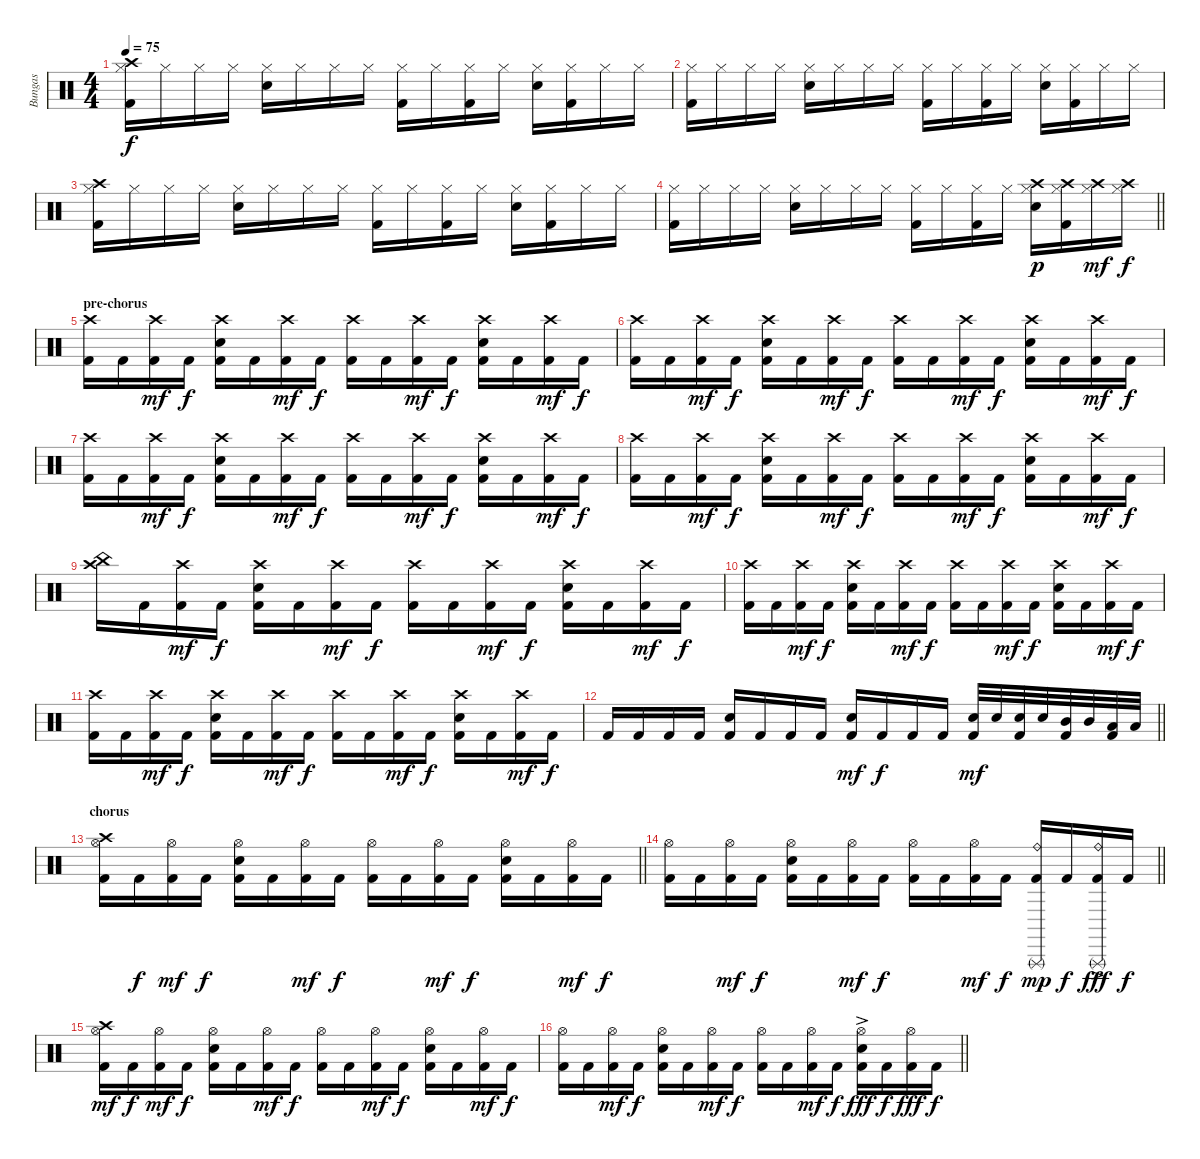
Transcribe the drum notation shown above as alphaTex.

\track ("Bungas" "Bungas") {instrument percussion}
\staff {score}
\articulation defaults
\ts (4 4)
\tempo 75
\clef neutral
\ks c
("Hi-Hat (closed)" "Crash high (hit)" "Kick (hit) 2").16{dy f} "Hi-Hat (closed)".16 "Hi-Hat (closed)".16 "Hi-Hat (closed)".16 ("Hi-Hat (closed)" "Electric Snare (hit)").16 "Hi-Hat (closed)".16 "Hi-Hat (closed)".16 "Hi-Hat (closed)".16 ("Hi-Hat (closed)" "Kick (hit) 2").16 "Hi-Hat (closed)".16 ("Hi-Hat (closed)" "Kick (hit) 2").16 "Hi-Hat (closed)".16 ("Hi-Hat (closed)" "Electric Snare (hit)").16 ("Hi-Hat (closed)" "Kick (hit) 2").16 "Hi-Hat (closed)".16 "Hi-Hat (closed)".16 |
("Hi-Hat (closed)" "Kick (hit) 2").16 "Hi-Hat (closed)".16 "Hi-Hat (closed)".16 "Hi-Hat (closed)".16 ("Hi-Hat (closed)" "Electric Snare (hit)").16 "Hi-Hat (closed)".16 "Hi-Hat (closed)".16 "Hi-Hat (closed)".16 ("Hi-Hat (closed)" "Kick (hit) 2").16 "Hi-Hat (closed)".16 ("Hi-Hat (closed)" "Kick (hit) 2").16 "Hi-Hat (closed)".16 ("Hi-Hat (closed)" "Electric Snare (hit)").16 ("Hi-Hat (closed)" "Kick (hit) 2").16 "Hi-Hat (closed)".16 "Hi-Hat (closed)".16 |
("Hi-Hat (closed)" "Crash high (hit)" "Kick (hit) 2").16 "Hi-Hat (closed)".16 "Hi-Hat (closed)".16 "Hi-Hat (closed)".16 ("Hi-Hat (closed)" "Electric Snare (hit)").16 "Hi-Hat (closed)".16 "Hi-Hat (closed)".16 "Hi-Hat (closed)".16 ("Hi-Hat (closed)" "Kick (hit) 2").16 "Hi-Hat (closed)".16 ("Hi-Hat (closed)" "Kick (hit) 2").16 "Hi-Hat (closed)".16 ("Hi-Hat (closed)" "Electric Snare (hit)").16 ("Hi-Hat (closed)" "Kick (hit) 2").16 "Hi-Hat (closed)".16 "Hi-Hat (closed)".16 |
\barLineRight lightlight
("Hi-Hat (closed)" "Kick (hit) 2").16 "Hi-Hat (closed)".16 "Hi-Hat (closed)".16 "Hi-Hat (closed)".16 ("Hi-Hat (closed)" "Electric Snare (hit)").16 "Hi-Hat (closed)".16 "Hi-Hat (closed)".16 "Hi-Hat (closed)".16 ("Hi-Hat (closed)" "Kick (hit) 2").16 "Hi-Hat (closed)".16 ("Hi-Hat (closed)" "Kick (hit) 2").16 "Hi-Hat (closed)".16 ("Hi-Hat (closed)" "Crash high (hit)" "Electric Snare (hit)").16{dy p} ("Hi-Hat (closed)" "Crash high (hit)" "Kick (hit) 2").16 ("Hi-Hat (closed)" "Crash high (hit)").16{dy mf} ("Hi-Hat (closed)" "Crash high (hit)").16{dy f} |
\section ("" "pre-chorus")
("Crash high (hit)" "Kick (hit) 2").16 "Kick (hit) 2".16 ("Crash high (hit)" "Kick (hit) 2").16{dy mf} "Kick (hit) 2".16{dy f} ("Crash high (hit)" "Electric Snare (hit)" "Kick (hit) 2").16 "Kick (hit) 2".16 ("Crash high (hit)" "Kick (hit) 2").16{dy mf} "Kick (hit) 2".16{dy f} ("Crash high (hit)" "Kick (hit) 2").16 "Kick (hit) 2".16 ("Crash high (hit)" "Kick (hit) 2").16{dy mf} "Kick (hit) 2".16{dy f} ("Crash high (hit)" "Electric Snare (hit)" "Kick (hit) 2").16 "Kick (hit) 2".16 ("Crash high (hit)" "Kick (hit) 2").16{dy mf} "Kick (hit) 2".16{dy f} |
("Crash high (hit)" "Kick (hit) 2").16 "Kick (hit) 2".16 ("Crash high (hit)" "Kick (hit) 2").16{dy mf} "Kick (hit) 2".16{dy f} ("Crash high (hit)" "Electric Snare (hit)" "Kick (hit) 2").16 "Kick (hit) 2".16 ("Crash high (hit)" "Kick (hit) 2").16{dy mf} "Kick (hit) 2".16{dy f} ("Crash high (hit)" "Kick (hit) 2").16 "Kick (hit) 2".16 ("Crash high (hit)" "Kick (hit) 2").16{dy mf} "Kick (hit) 2".16{dy f} ("Crash high (hit)" "Electric Snare (hit)" "Kick (hit) 2").16 "Kick (hit) 2".16 ("Crash high (hit)" "Kick (hit) 2").16{dy mf} "Kick (hit) 2".16{dy f} |
("Crash high (hit)" "Kick (hit) 2").16 "Kick (hit) 2".16 ("Crash high (hit)" "Kick (hit) 2").16{dy mf} "Kick (hit) 2".16{dy f} ("Crash high (hit)" "Electric Snare (hit)" "Kick (hit) 2").16 "Kick (hit) 2".16 ("Crash high (hit)" "Kick (hit) 2").16{dy mf} "Kick (hit) 2".16{dy f} ("Crash high (hit)" "Kick (hit) 2").16 "Kick (hit) 2".16 ("Crash high (hit)" "Kick (hit) 2").16{dy mf} "Kick (hit) 2".16{dy f} ("Crash high (hit)" "Electric Snare (hit)" "Kick (hit) 2").16 "Kick (hit) 2".16 ("Crash high (hit)" "Kick (hit) 2").16{dy mf} "Kick (hit) 2".16{dy f} |
("Crash high (hit)" "Kick (hit) 2").16 "Kick (hit) 2".16 ("Crash high (hit)" "Kick (hit) 2").16{dy mf} "Kick (hit) 2".16{dy f} ("Crash high (hit)" "Electric Snare (hit)" "Kick (hit) 2").16 "Kick (hit) 2".16 ("Crash high (hit)" "Kick (hit) 2").16{dy mf} "Kick (hit) 2".16{dy f} ("Crash high (hit)" "Kick (hit) 2").16 "Kick (hit) 2".16 ("Crash high (hit)" "Kick (hit) 2").16{dy mf} "Kick (hit) 2".16{dy f} ("Crash high (hit)" "Electric Snare (hit)" "Kick (hit) 2").16 "Kick (hit) 2".16 ("Crash high (hit)" "Kick (hit) 2").16{dy mf} "Kick (hit) 2".16{dy f} |
("Crash high (hit)" "China (hit)").16 "Kick (hit) 2".16 ("Crash high (hit)" "Kick (hit) 2").16{dy mf} "Kick (hit) 2".16{dy f} ("Crash high (hit)" "Electric Snare (hit)" "Kick (hit) 2").16 "Kick (hit) 2".16 ("Crash high (hit)" "Kick (hit) 2").16{dy mf} "Kick (hit) 2".16{dy f} ("Crash high (hit)" "Kick (hit) 2").16 "Kick (hit) 2".16 ("Crash high (hit)" "Kick (hit) 2").16{dy mf} "Kick (hit) 2".16{dy f} ("Crash high (hit)" "Electric Snare (hit)" "Kick (hit) 2").16 "Kick (hit) 2".16 ("Crash high (hit)" "Kick (hit) 2").16{dy mf} "Kick (hit) 2".16{dy f} |
("Crash high (hit)" "Kick (hit) 2").16 "Kick (hit) 2".16 ("Crash high (hit)" "Kick (hit) 2").16{dy mf} "Kick (hit) 2".16{dy f} ("Crash high (hit)" "Electric Snare (hit)" "Kick (hit) 2").16 "Kick (hit) 2".16 ("Crash high (hit)" "Kick (hit) 2").16{dy mf} "Kick (hit) 2".16{dy f} ("Crash high (hit)" "Kick (hit) 2").16 "Kick (hit) 2".16 ("Crash high (hit)" "Kick (hit) 2").16{dy mf} "Kick (hit) 2".16{dy f} ("Crash high (hit)" "Electric Snare (hit)" "Kick (hit) 2").16 "Kick (hit) 2".16 ("Crash high (hit)" "Kick (hit) 2").16{dy mf} "Kick (hit) 2".16{dy f} |
("Crash high (hit)" "Kick (hit) 2").16 "Kick (hit) 2".16 ("Crash high (hit)" "Kick (hit) 2").16{dy mf} "Kick (hit) 2".16{dy f} ("Crash high (hit)" "Electric Snare (hit)" "Kick (hit) 2").16 "Kick (hit) 2".16 ("Crash high (hit)" "Kick (hit) 2").16{dy mf} "Kick (hit) 2".16{dy f} ("Crash high (hit)" "Kick (hit) 2").16 "Kick (hit) 2".16 ("Crash high (hit)" "Kick (hit) 2").16{dy mf} "Kick (hit) 2".16{dy f} ("Crash high (hit)" "Electric Snare (hit)" "Kick (hit) 2").16 "Kick (hit) 2".16 ("Crash high (hit)" "Kick (hit) 2").16{dy mf} "Kick (hit) 2".16{dy f} |
\barLineRight lightlight "Kick (hit) 2".16 "Kick (hit) 2".16 "Kick (hit) 2".16 "Kick (hit) 2".16
("Electric Snare (hit)" "Kick (hit) 2").16 "Kick (hit) 2".16 "Kick (hit) 2".16 "Kick (hit) 2".16 ("Electric Snare (hit)" "Kick (hit) 2").16{dy mf} "Kick (hit) 2".16{dy f} "Kick (hit) 2".16 "Kick (hit) 2".16 ("Electric Snare (hit)" "Kick (hit) 2").32{dy mf} "Electric Snare (hit)".32 ("Electric Snare (hit)" "Kick (hit) 2").32 "Electric Snare (hit)".32 ("Mid Tom (hit)" "Kick (hit) 2").32 "Mid Tom (hit)".32 ("Low Tom (hit)" "Kick (hit) 2").32 "Low Tom (hit)".32 |
\section ("" "chorus")
\barLineRight lightlight
("Hi-Hat (open)" "Crash high (hit)" "Kick (hit) 2").16 "Kick (hit) 2".16{dy f} ("Hi-Hat (open)" "Kick (hit) 2").16{dy mf} "Kick (hit) 2".16{dy f} ("Hi-Hat (open)" "Electric Snare (hit)" "Kick (hit) 2").16 "Kick (hit) 2".16 ("Hi-Hat (open)" "Kick (hit) 2").16{dy mf} "Kick (hit) 2".16{dy f} ("Hi-Hat (open)" "Kick (hit) 2").16 "Kick (hit) 2".16 ("Hi-Hat (open)" "Kick (hit) 2").16{dy mf} "Kick (hit) 2".16{dy f} ("Hi-Hat (open)" "Electric Snare (hit)" "Kick (hit) 2").16 "Kick (hit) 2".16 ("Hi-Hat (open)" "Kick (hit) 2").16{dy mf} "Kick (hit) 2".16{dy f} |
\barLineRight lightlight
("Hi-Hat (open)" "Kick (hit) 2").16 "Kick (hit) 2".16 ("Hi-Hat (open)" "Kick (hit) 2").16{dy mf} "Kick (hit) 2".16{dy f} ("Hi-Hat (open)" "Electric Snare (hit)" "Kick (hit) 2").16 "Kick (hit) 2".16 ("Hi-Hat (open)" "Kick (hit) 2").16{dy mf} "Kick (hit) 2".16{dy f} ("Hi-Hat (open)" "Kick (hit) 2").16 "Kick (hit) 2".16 ("Hi-Hat (open)" "Kick (hit) 2").16{dy mf} "Kick (hit) 2".16{dy f} ("Ride (bell)" "Triangle (rnute)" "Kick (hit) 2").16{dy mp} "Kick (hit) 2".16{dy f} ("Ride (bell)"{ac} "Triangle (rnute)"{ac} "Kick (hit) 2"{ac}).16{dy fff} "Kick (hit) 2".16{dy f} |
("Hi-Hat (open)" "Crash high (hit)" "Kick (hit) 2").16{dy mf} "Kick (hit) 2".16{dy f} ("Hi-Hat (open)" "Kick (hit) 2").16{dy mf} "Kick (hit) 2".16{dy f} ("Hi-Hat (open)" "Electric Snare (hit)" "Kick (hit) 2").16 "Kick (hit) 2".16 ("Hi-Hat (open)" "Kick (hit) 2").16{dy mf} "Kick (hit) 2".16{dy f} ("Hi-Hat (open)" "Kick (hit) 2").16 "Kick (hit) 2".16 ("Hi-Hat (open)" "Kick (hit) 2").16{dy mf} "Kick (hit) 2".16{dy f} ("Hi-Hat (open)" "Electric Snare (hit)" "Kick (hit) 2").16 "Kick (hit) 2".16 ("Hi-Hat (open)" "Kick (hit) 2").16{dy mf} "Kick (hit) 2".16{dy f} |
\barLineRight lightlight
("Hi-Hat (open)" "Kick (hit) 2").16 "Kick (hit) 2".16 ("Hi-Hat (open)" "Kick (hit) 2").16{dy mf} "Kick (hit) 2".16{dy f} ("Hi-Hat (open)" "Electric Snare (hit)" "Kick (hit) 2").16 "Kick (hit) 2".16 ("Hi-Hat (open)" "Kick (hit) 2").16{dy mf} "Kick (hit) 2".16{dy f} ("Hi-Hat (open)" "Kick (hit) 2").16 "Kick (hit) 2".16 ("Hi-Hat (open)" "Kick (hit) 2").16{dy mf} "Kick (hit) 2".16{dy f} ("Hi-Hat (open)"{ac} "Electric Snare (hit)" "Kick (hit) 2").16{dy fff} "Kick (hit) 2".16{dy f} ("Hi-Hat (open)" "Kick (hit) 2").16{dy fff} "Kick (hit) 2".16{dy f}
